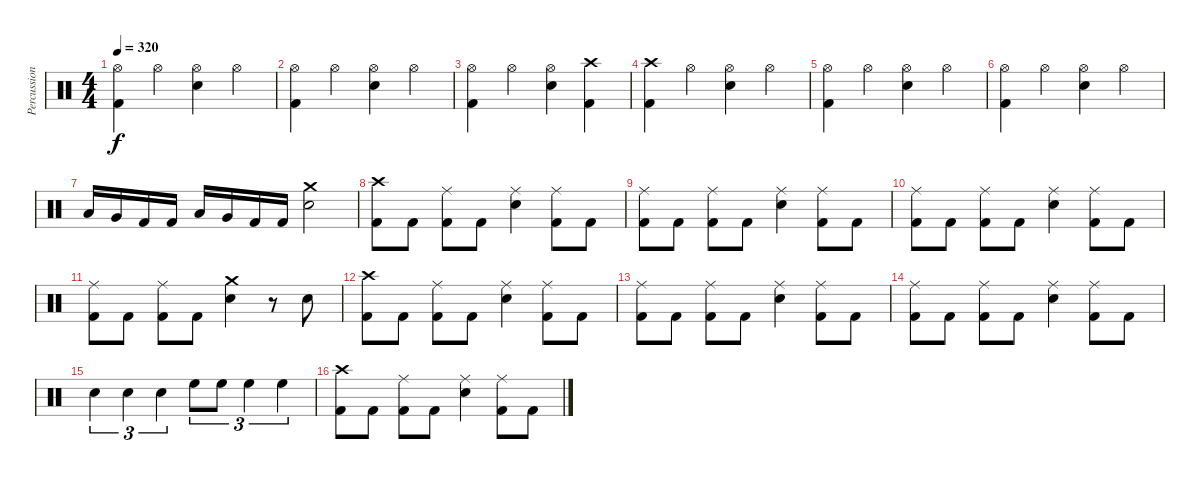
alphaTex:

\track ("Percussion" "Percussion") {instrument percussion}
\staff {score}
\articulation defaults
\ts (4 4)
\tempo 320
\clef neutral
\ks c
("Hi-Hat (open)" "Kick (hit) 2").4{dy f} "Hi-Hat (open)".4 ("Hi-Hat (open)" "Electric Snare (hit)").4 "Hi-Hat (open)".4 |
("Hi-Hat (open)" "Kick (hit) 2").4 "Hi-Hat (open)".4 ("Hi-Hat (open)" "Electric Snare (hit)").4 "Hi-Hat (open)".4 |
("Hi-Hat (open)" "Kick (hit) 2").4 "Hi-Hat (open)".4 ("Hi-Hat (open)" "Electric Snare (hit)").4 ("Crash high (hit)" "Kick (hit) 2").4 |
("Crash high (hit)" "Kick (hit) 2").4 "Hi-Hat (open)".4 ("Hi-Hat (open)" "Electric Snare (hit)").4 "Hi-Hat (open)".4 |
("Hi-Hat (open)" "Kick (hit) 2").4 "Hi-Hat (open)".4 ("Hi-Hat (open)" "Electric Snare (hit)").4 "Hi-Hat (open)".4 |
("Hi-Hat (open)" "Kick (hit) 2").4 "Hi-Hat (open)".4 ("Hi-Hat (open)" "Electric Snare (hit)").4 "Hi-Hat (open)".4 |
"Low Tom (hit)".16 "Very Low Tom (hit)".16 "Kick (hit) 2".16 "Kick (hit) 2".16 "Low Tom (hit)".16 "Very Low Tom (hit)".16 "Kick (hit) 2".16 "Kick (hit) 2".16 ("Crash medium (hit)" "Electric Snare (hit)").2 |
("Crash high (hit)" "Kick (hit) 2").8 "Kick (hit) 2".8 ("Ride (middle)" "Kick (hit) 2").8 "Kick (hit) 2".8 ("Ride (middle)" "Electric Snare (hit)").4 ("Ride (middle)" "Kick (hit) 2").8 "Kick (hit) 2".8 |
("Ride (middle)" "Kick (hit) 2").8 "Kick (hit) 2".8 ("Ride (middle)" "Kick (hit) 2").8 "Kick (hit) 2".8 ("Ride (middle)" "Electric Snare (hit)").4 ("Ride (middle)" "Kick (hit) 2").8 "Kick (hit) 2".8 |
("Ride (middle)" "Kick (hit) 2").8 "Kick (hit) 2".8 ("Ride (middle)" "Kick (hit) 2").8 "Kick (hit) 2".8 ("Ride (middle)" "Electric Snare (hit)").4 ("Ride (middle)" "Kick (hit) 2").8 "Kick (hit) 2".8 |
("Ride (middle)" "Kick (hit) 2").8 "Kick (hit) 2".8 ("Ride (middle)" "Kick (hit) 2").8 "Kick (hit) 2".8 ("Crash medium (hit)" "Electric Snare (hit)").4 r.8 "Electric Snare (hit)".8 |
("Crash high (hit)" "Kick (hit) 2").8 "Kick (hit) 2".8 ("Ride (middle)" "Kick (hit) 2").8 "Kick (hit) 2".8 ("Ride (middle)" "Electric Snare (hit)").4 ("Ride (middle)" "Kick (hit) 2").8 "Kick (hit) 2".8 |
("Ride (middle)" "Kick (hit) 2").8 "Kick (hit) 2".8 ("Ride (middle)" "Kick (hit) 2").8 "Kick (hit) 2".8 ("Ride (middle)" "Electric Snare (hit)").4 ("Ride (middle)" "Kick (hit) 2").8 "Kick (hit) 2".8 |
("Ride (middle)" "Kick (hit) 2").8 "Kick (hit) 2".8 ("Ride (middle)" "Kick (hit) 2").8 "Kick (hit) 2".8 ("Ride (middle)" "Electric Snare (hit)").4 ("Ride (middle)" "Kick (hit) 2").8 "Kick (hit) 2".8 |
"Electric Snare (hit)".4{tu (3 2)} "Electric Snare (hit)".4{tu (3 2)} "Electric Snare (hit)".4{tu (3 2)} "High Floor Tom (hit)".8{tu (3 2)} "High Floor Tom (hit)".8{tu (3 2)} "High Floor Tom (hit)".4{tu (3 2)} "High Floor Tom (hit)".4{tu (3 2)} |
("Crash high (hit)" "Kick (hit) 2").8 "Kick (hit) 2".8 ("Ride (middle)" "Kick (hit) 2").8 "Kick (hit) 2".8 ("Ride (middle)" "Electric Snare (hit)").4 ("Ride (middle)" "Kick (hit) 2").8 "Kick (hit) 2".8
